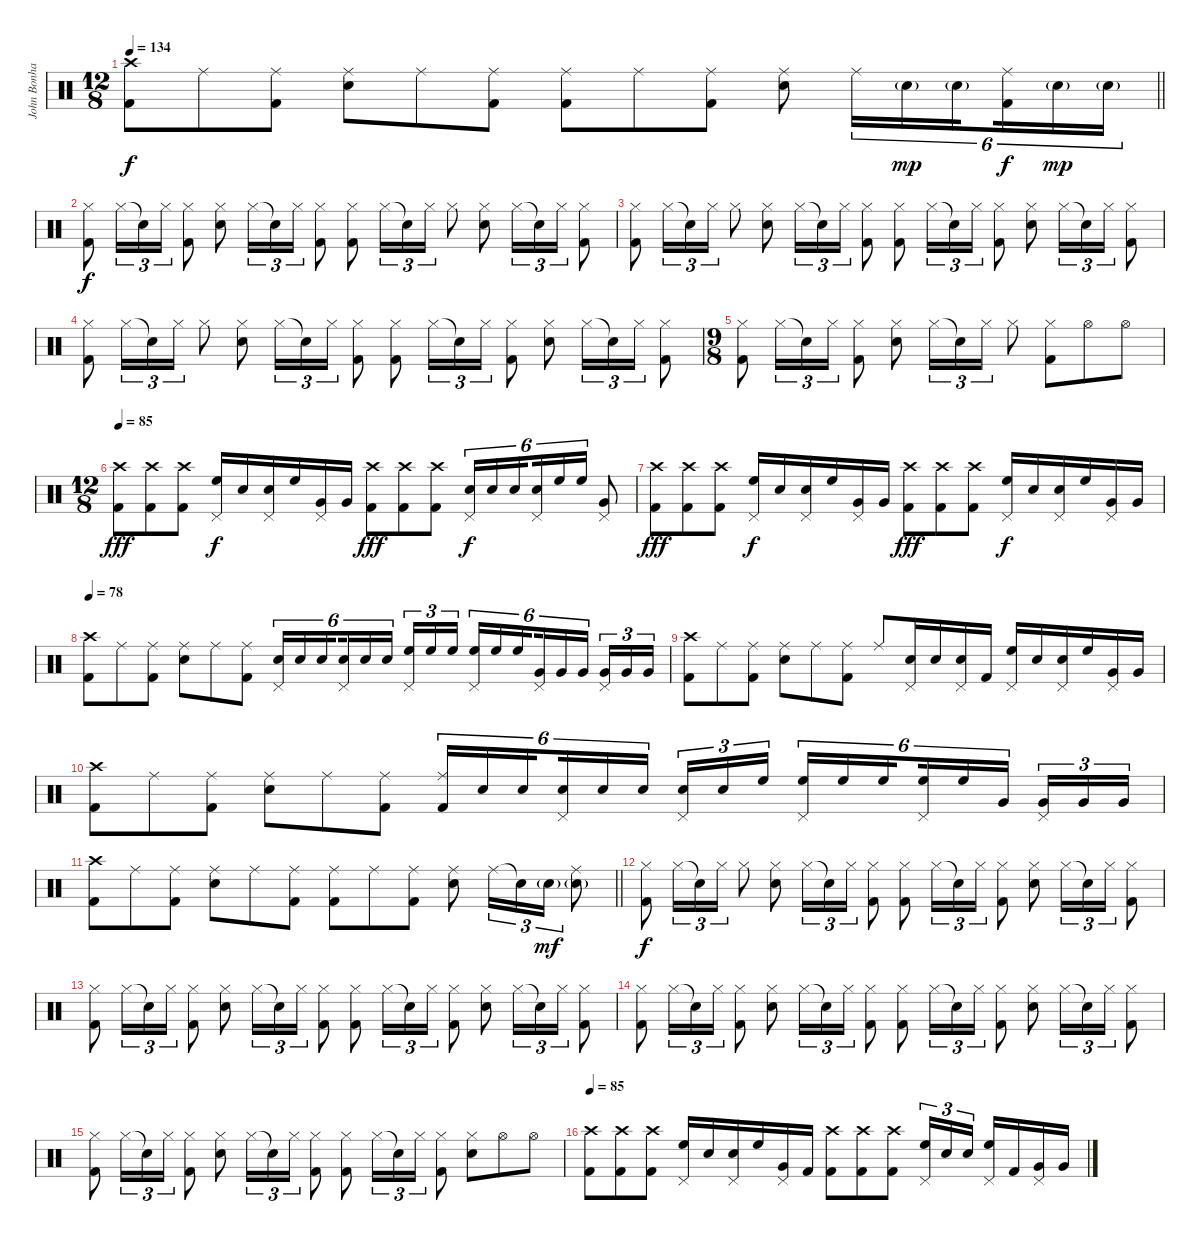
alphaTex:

\track ("John Bonham - Drums" "John Bonha") {instrument percussion}
\staff {score}
\articulation defaults
\ts (12 8)
\tempo 134
\clef neutral
\barLineRight lightlight
\ks c
("Crash high (hit)" "Kick (hit) 2").8{dy f} "Ride (middle)".8 ("Ride (middle)" "Kick (hit) 2").8 ("Ride (middle)" "Snare (hit) 2").8 "Ride (middle)".8 ("Ride (middle)" "Kick (hit) 2").8 ("Ride (middle)" "Kick (hit) 2").8 "Ride (middle)".8 ("Ride (middle)" "Kick (hit) 2").8 ("Ride (middle)" "Snare (hit) 2").8 "Ride (middle)".16{tu (6 4)} "Snare (hit) 2"{g}.16{tu (6 4) dy mp} "Snare (hit) 2"{g}.16{tu (6 4) beam splitsecondary} ("Ride (middle)" "Kick (hit) 2").16{tu (6 4) dy f} "Snare (hit) 2"{g}.16{tu (6 4) dy mp} "Snare (hit) 2"{g}.16{tu (6 4)} |
("Hi-Hat (closed)" "Kick (hit) 2").8{dy f} "Hi-Hat (closed)".16{tu (3 2)} "Snare (hit)"{t}.16{tu (3 2)} "Hi-Hat (closed)".16{tu (3 2)} ("Hi-Hat (closed)" "Kick (hit) 2").8 ("Hi-Hat (closed)" "Snare (hit) 2").8 "Hi-Hat (closed)".16{tu (3 2)} "Snare (hit)"{t}.16{tu (3 2)} "Hi-Hat (closed)".16{tu (3 2)} ("Hi-Hat (closed)" "Kick (hit) 2").8 ("Hi-Hat (closed)" "Kick (hit) 2").8 "Hi-Hat (closed)".16{tu (3 2)} "Snare (hit)"{t}.16{tu (3 2)} "Hi-Hat (closed)".16{tu (3 2)} "Hi-Hat (closed)".8 ("Hi-Hat (closed)" "Snare (hit) 2").8 "Hi-Hat (closed)".16{tu (3 2)} "Snare (hit)"{t}.16{tu (3 2)} "Hi-Hat (closed)".16{tu (3 2)} ("Hi-Hat (closed)" "Kick (hit) 2").8 |
("Hi-Hat (closed)" "Kick (hit) 2").8 "Hi-Hat (closed)".16{tu (3 2)} "Snare (hit)"{t}.16{tu (3 2)} "Hi-Hat (closed)".16{tu (3 2)} "Hi-Hat (closed)".8 ("Hi-Hat (closed)" "Snare (hit) 2").8 "Hi-Hat (closed)".16{tu (3 2)} "Snare (hit)"{t}.16{tu (3 2)} "Hi-Hat (closed)".16{tu (3 2)} ("Hi-Hat (closed)" "Kick (hit) 2").8 ("Hi-Hat (closed)" "Kick (hit) 2").8 "Hi-Hat (closed)".16{tu (3 2)} "Snare (hit)"{t}.16{tu (3 2)} "Hi-Hat (closed)".16{tu (3 2)} ("Hi-Hat (closed)" "Kick (hit) 2").8 ("Hi-Hat (closed)" "Snare (hit) 2").8 "Hi-Hat (closed)".16{tu (3 2)} "Snare (hit)"{t}.16{tu (3 2)} "Hi-Hat (closed)".16{tu (3 2)} ("Hi-Hat (closed)" "Kick (hit) 2").8 |
("Hi-Hat (closed)" "Kick (hit) 2").8 "Hi-Hat (closed)".16{tu (3 2)} "Snare (hit)"{t}.16{tu (3 2)} "Hi-Hat (closed)".16{tu (3 2)} "Hi-Hat (closed)".8 ("Hi-Hat (closed)" "Snare (hit) 2").8 "Hi-Hat (closed)".16{tu (3 2)} "Snare (hit)"{t}.16{tu (3 2)} "Hi-Hat (closed)".16{tu (3 2)} ("Hi-Hat (closed)" "Kick (hit) 2").8 ("Hi-Hat (closed)" "Kick (hit) 2").8 "Hi-Hat (closed)".16{tu (3 2)} "Snare (hit)"{t}.16{tu (3 2)} "Hi-Hat (closed)".16{tu (3 2)} ("Hi-Hat (closed)" "Kick (hit) 2").8 ("Hi-Hat (closed)" "Snare (hit) 2").8 "Hi-Hat (closed)".16{tu (3 2)} "Snare (hit)"{t}.16{tu (3 2)} "Hi-Hat (closed)".16{tu (3 2)} ("Hi-Hat (closed)" "Kick (hit) 2").8 |
\ts (9 8)
("Hi-Hat (closed)" "Kick (hit) 2").8 "Hi-Hat (closed)".16{tu (3 2)} "Snare (hit)"{t}.16{tu (3 2)} "Hi-Hat (closed)".16{tu (3 2)} ("Hi-Hat (closed)" "Kick (hit) 2").8 ("Hi-Hat (closed)" "Snare (hit) 2").8 "Hi-Hat (closed)".16{tu (3 2)} "Snare (hit)"{t}.16{tu (3 2)} "Hi-Hat (closed)".16{tu (3 2)} "Hi-Hat (closed)".8 ("Hi-Hat (closed)" "Kick (hit) 2").8 "Hi-Hat (open)".8 "Hi-Hat (open)".8 |
\ts (12 8)
\tempo 85
("Crash high (hit)" "Kick (hit) 2").8{dy fff volume 16} ("Crash high (hit)" "Kick (hit) 2").8 ("Crash high (hit)" "Kick (hit) 2").8 ("Pedal Hi-Hat (hit)" "High Floor Tom (hit)").16{dy f} "Snare (hit) 2".16 ("Pedal Hi-Hat (hit)" "Snare (hit) 2").16 "High Floor Tom (hit)".16 ("Pedal Hi-Hat (hit)" "Very Low Tom (hit)").16 "Very Low Tom (hit)".16 ("Crash high (hit)" "Kick (hit) 2").8{dy fff} ("Crash high (hit)" "Kick (hit) 2").8 ("Crash high (hit)" "Kick (hit) 2").8 ("Pedal Hi-Hat (hit)" "Snare (hit) 2").16{tu (6 4) dy f} "Snare (hit) 2".16{tu (6 4)} "Snare (hit) 2".16{tu (6 4) beam splitsecondary} ("Pedal Hi-Hat (hit)" "Snare (hit) 2").16{tu (6 4)} "High Floor Tom (hit)".16{tu (6 4)} "High Floor Tom (hit)".16{tu (6 4)} ("Pedal Hi-Hat (hit)" "Very Low Tom (hit)").8 |
("Crash high (hit)" "Kick (hit) 2").8{dy fff} ("Crash high (hit)" "Kick (hit) 2").8 ("Crash high (hit)" "Kick (hit) 2").8 ("Pedal Hi-Hat (hit)" "High Floor Tom (hit)").16{dy f} "Snare (hit) 2".16 ("Pedal Hi-Hat (hit)" "Snare (hit) 2").16 "High Floor Tom (hit)".16 ("Pedal Hi-Hat (hit)" "Very Low Tom (hit)").16 "Very Low Tom (hit)".16 ("Crash high (hit)" "Kick (hit) 2").8{dy fff} ("Crash high (hit)" "Kick (hit) 2").8 ("Crash high (hit)" "Kick (hit) 2").8 ("Pedal Hi-Hat (hit)" "High Floor Tom (hit)").16{dy f} "Snare (hit) 2".16 ("Pedal Hi-Hat (hit)" "Snare (hit) 2").16 "High Floor Tom (hit)".16 ("Pedal Hi-Hat (hit)" "Very Low Tom (hit)").16 "Very Low Tom (hit)".16 |
\tempo 78
("Crash high (hit)" "Kick (hit) 2").8{volume 10} "Ride (middle)".8 ("Ride (middle)" "Kick (hit) 2").8 ("Ride (middle)" "Snare (hit) 2").8 "Ride (middle)".8 ("Ride (middle)" "Kick (hit) 2").8 ("Pedal Hi-Hat (hit)" "Snare (hit) 2").16{tu (6 4)} "Snare (hit) 2".16{tu (6 4)} "Snare (hit) 2".16{tu (6 4) beam splitsecondary} ("Pedal Hi-Hat (hit)" "Snare (hit) 2").16{tu (6 4)} "Snare (hit) 2".16{tu (6 4)} "Snare (hit) 2".16{tu (6 4) beam splitsecondary} ("Pedal Hi-Hat (hit)" "High Floor Tom (hit)").16{tu (3 2)} "High Floor Tom (hit)".16{tu (3 2)} "High Floor Tom (hit)".16{tu (3 2)} ("Pedal Hi-Hat (hit)" "High Floor Tom (hit)").16{tu (6 4)} "High Floor Tom (hit)".16{tu (6 4)} "High Floor Tom (hit)".16{tu (6 4) beam splitsecondary} ("Pedal Hi-Hat (hit)" "Very Low Tom (hit)").16{tu (6 4)} "Very Low Tom (hit)".16{tu (6 4)} "Very Low Tom (hit)".16{tu (6 4) beam splitsecondary} ("Pedal Hi-Hat (hit)" "Very Low Tom (hit)").16{tu (3 2)} "Very Low Tom (hit)".16{tu (3 2)} "Very Low Tom (hit)".16{tu (3 2)} |
("Crash high (hit)" "Kick (hit) 2").8 "Ride (middle)".8 ("Ride (middle)" "Kick (hit) 2").8 ("Ride (middle)" "Snare (hit) 2").8 "Ride (middle)".8 ("Ride (middle)" "Kick (hit) 2").8 "Ride (middle)".8 ("Pedal Hi-Hat (hit)" "Snare (hit) 2").16 "Snare (hit) 2".16 ("Pedal Hi-Hat (hit)" "Snare (hit) 2").16 "Kick (hit) 2".16 ("Pedal Hi-Hat (hit)" "High Floor Tom (hit)").16 "Snare (hit) 2".16 ("Pedal Hi-Hat (hit)" "Snare (hit) 2").16 "High Floor Tom (hit)".16 ("Pedal Hi-Hat (hit)" "Very Low Tom (hit)").16 "Very Low Tom (hit)".16 |
("Crash high (hit)" "Kick (hit) 2").8 "Ride (middle)".8 ("Ride (middle)" "Kick (hit) 2").8 ("Ride (middle)" "Snare (hit) 2").8 "Ride (middle)".8 ("Ride (middle)" "Kick (hit) 2").8 ("Ride (middle)" "Kick (hit) 2").16{tu (6 4)} "Snare (hit) 2".16{tu (6 4)} "Snare (hit) 2".16{tu (6 4) beam splitsecondary} ("Pedal Hi-Hat (hit)" "Snare (hit) 2").16{tu (6 4)} "Snare (hit) 2".16{tu (6 4)} "Snare (hit) 2".16{tu (6 4) beam splitsecondary} ("Pedal Hi-Hat (hit)" "Snare (hit) 2").16{tu (3 2)} "Snare (hit) 2".16{tu (3 2)} "High Floor Tom (hit)".16{tu (3 2)} ("Pedal Hi-Hat (hit)" "High Floor Tom (hit)").16{tu (6 4)} "High Floor Tom (hit)".16{tu (6 4)} "High Floor Tom (hit)".16{tu (6 4) beam splitsecondary} ("Pedal Hi-Hat (hit)" "High Floor Tom (hit)").16{tu (6 4)} "High Floor Tom (hit)".16{tu (6 4)} "Very Low Tom (hit)".16{tu (6 4) beam splitsecondary} ("Pedal Hi-Hat (hit)" "Very Low Tom (hit)").16{tu (3 2)} "Very Low Tom (hit)".16{tu (3 2)} "Very Low Tom (hit)".16{tu (3 2)} |
\barLineRight lightlight
("Crash high (hit)" "Kick (hit) 2").8 "Ride (middle)".8 ("Ride (middle)" "Kick (hit) 2").8 ("Ride (middle)" "Snare (hit) 2").8 "Ride (middle)".8 ("Ride (middle)" "Kick (hit) 2").8 ("Ride (middle)" "Kick (hit) 2").8 "Ride (middle)".8 ("Ride (middle)" "Kick (hit) 2").8 ("Ride (middle)" "Snare (hit) 2").8 "Ride (middle)".16{tu (3 2)} "Snare (hit)"{t}.16{tu (3 2)} "Snare (hit) 2"{g}.16{tu (3 2) dy mf} ("Ride (middle)" "Snare (hit) 2"{g}).8 |
("Hi-Hat (closed)" "Kick (hit) 2").8{dy f} "Hi-Hat (closed)".16{tu (3 2)} "Snare (hit)"{t}.16{tu (3 2)} "Hi-Hat (closed)".16{tu (3 2)} "Hi-Hat (closed)".8 ("Hi-Hat (closed)" "Snare (hit) 2").8 "Hi-Hat (closed)".16{tu (3 2)} "Snare (hit)"{t}.16{tu (3 2)} "Hi-Hat (closed)".16{tu (3 2)} ("Hi-Hat (closed)" "Kick (hit) 2").8 ("Hi-Hat (closed)" "Kick (hit) 2").8 "Hi-Hat (closed)".16{tu (3 2)} "Snare (hit)"{t}.16{tu (3 2)} "Hi-Hat (closed)".16{tu (3 2)} ("Hi-Hat (closed)" "Kick (hit) 2").8 ("Hi-Hat (closed)" "Snare (hit) 2").8 "Hi-Hat (closed)".16{tu (3 2)} "Snare (hit)"{t}.16{tu (3 2)} "Hi-Hat (closed)".16{tu (3 2)} ("Hi-Hat (closed)" "Kick (hit) 2").8 |
("Hi-Hat (closed)" "Kick (hit) 2").8 "Hi-Hat (closed)".16{tu (3 2)} "Snare (hit)"{t}.16{tu (3 2)} "Hi-Hat (closed)".16{tu (3 2)} ("Hi-Hat (closed)" "Kick (hit) 2").8 ("Hi-Hat (closed)" "Snare (hit) 2").8 "Hi-Hat (closed)".16{tu (3 2)} "Snare (hit)"{t}.16{tu (3 2)} "Hi-Hat (closed)".16{tu (3 2)} ("Hi-Hat (closed)" "Kick (hit) 2").8 ("Hi-Hat (closed)" "Kick (hit) 2").8 "Hi-Hat (closed)".16{tu (3 2)} "Snare (hit)"{t}.16{tu (3 2)} "Hi-Hat (closed)".16{tu (3 2)} ("Hi-Hat (closed)" "Kick (hit) 2").8 ("Hi-Hat (closed)" "Snare (hit) 2").8 "Hi-Hat (closed)".16{tu (3 2)} "Snare (hit)"{t}.16{tu (3 2)} "Hi-Hat (closed)".16{tu (3 2)} ("Hi-Hat (closed)" "Kick (hit) 2").8 |
("Hi-Hat (closed)" "Kick (hit) 2").8 "Hi-Hat (closed)".16{tu (3 2)} "Snare (hit)"{t}.16{tu (3 2)} "Hi-Hat (closed)".16{tu (3 2)} ("Hi-Hat (closed)" "Kick (hit) 2").8 ("Hi-Hat (closed)" "Snare (hit) 2").8 "Hi-Hat (closed)".16{tu (3 2)} "Snare (hit)"{t}.16{tu (3 2)} "Hi-Hat (closed)".16{tu (3 2)} ("Hi-Hat (closed)" "Kick (hit) 2").8 ("Hi-Hat (closed)" "Kick (hit) 2").8 "Hi-Hat (closed)".16{tu (3 2)} "Snare (hit)"{t}.16{tu (3 2)} "Hi-Hat (closed)".16{tu (3 2)} ("Hi-Hat (closed)" "Kick (hit) 2").8 ("Hi-Hat (closed)" "Snare (hit) 2").8 "Hi-Hat (closed)".16{tu (3 2)} "Snare (hit)"{t}.16{tu (3 2)} "Hi-Hat (closed)".16{tu (3 2)} ("Hi-Hat (closed)" "Kick (hit) 2").8 |
("Hi-Hat (closed)" "Kick (hit) 2").8 "Hi-Hat (closed)".16{tu (3 2)} "Snare (hit)"{t}.16{tu (3 2)} "Hi-Hat (closed)".16{tu (3 2)} ("Hi-Hat (closed)" "Kick (hit) 2").8 ("Hi-Hat (closed)" "Snare (hit) 2").8 "Hi-Hat (closed)".16{tu (3 2)} "Snare (hit)"{t}.16{tu (3 2)} "Hi-Hat (closed)".16{tu (3 2)} ("Hi-Hat (closed)" "Kick (hit) 2").8 ("Hi-Hat (closed)" "Kick (hit) 2").8 "Hi-Hat (closed)".16{tu (3 2)} "Snare (hit)"{t}.16{tu (3 2)} "Hi-Hat (closed)".16{tu (3 2)} ("Hi-Hat (closed)" "Kick (hit) 2").8 ("Hi-Hat (closed)" "Snare (hit) 2").8 "Hi-Hat (open)".8 "Hi-Hat (open)".8 |
\tempo 85
("Crash high (hit)" "Kick (hit) 2").8{volume 16} ("Crash high (hit)" "Kick (hit) 2").8 ("Crash high (hit)" "Kick (hit) 2").8 ("Pedal Hi-Hat (hit)" "High Floor Tom (hit)").16 "Snare (hit) 2".16 ("Pedal Hi-Hat (hit)" "Snare (hit) 2").16 "High Floor Tom (hit)".16 ("Pedal Hi-Hat (hit)" "Very Low Tom (hit)").16 "Kick (hit) 2".16 ("Crash high (hit)" "Kick (hit) 2").8 ("Crash high (hit)" "Kick (hit) 2").8 ("Crash high (hit)" "Kick (hit) 2").8 ("Pedal Hi-Hat (hit)" "High Floor Tom (hit)").16{tu (3 2)} "Snare (hit) 2".16{tu (3 2)} "Snare (hit) 2".16{tu (3 2) beam splitsecondary} ("Pedal Hi-Hat (hit)" "High Floor Tom (hit)").16 "Kick (hit) 2".16 ("Pedal Hi-Hat (hit)" "Very Low Tom (hit)").16 "Very Low Tom (hit)".16
